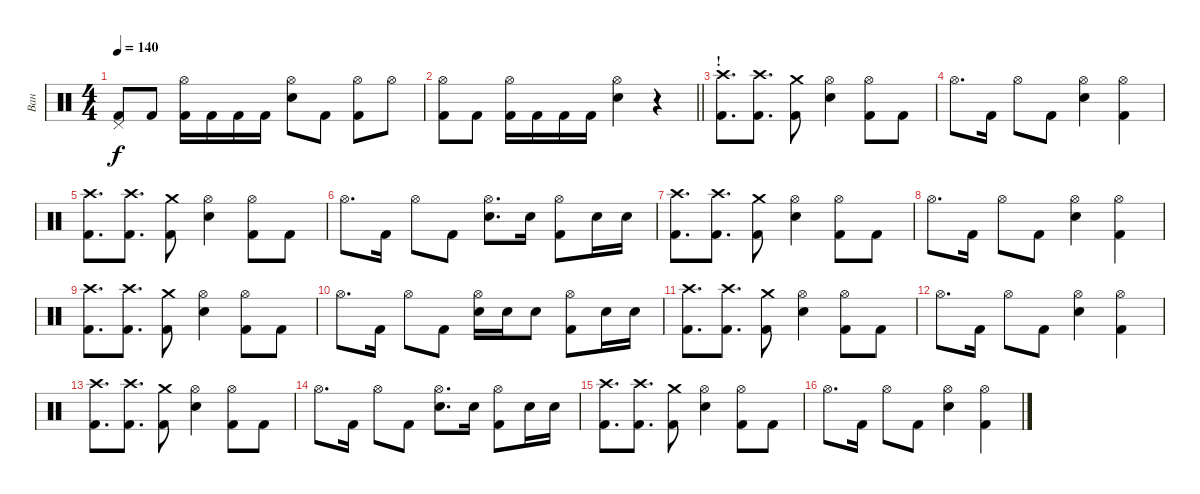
\track ("Ван" "Ван") {instrument percussion}
\staff {score}
\articulation defaults
\ts (4 4)
\tempo 140
\clef neutral
\ks c
("Pedal Hi-Hat (hit)" "Kick (hit) 2").8{dy f} "Kick (hit) 2".8 ("Hi-Hat (open)" "Kick (hit) 2").16 "Kick (hit) 2".16 "Kick (hit) 2".16 "Kick (hit) 2".16 ("Hi-Hat (open)" "Snare (hit) 2").8 "Kick (hit) 2".8 ("Hi-Hat (open)" "Kick (hit) 2").8 "Hi-Hat (open)".8 |
\barLineRight lightlight
("Hi-Hat (open)" "Kick (hit) 2").8 "Kick (hit) 2".8 ("Hi-Hat (open)" "Kick (hit) 2").16 "Kick (hit) 2".16 "Kick (hit) 2".16 "Kick (hit) 2".16 ("Hi-Hat (open)" "Snare (hit) 2").4 r.4 |
\section ("" "!")
("Crash high (hit)" "Kick (hit) 2").8{d} ("Crash high (hit)" "Kick (hit) 2").8{d} ("Crash medium (hit)" "Kick (hit) 2").8 ("Hi-Hat (open)" "Snare (hit) 2").4 ("Hi-Hat (open)" "Kick (hit) 2").8 "Kick (hit) 2".8 |
"Hi-Hat (open)".8{d} "Kick (hit) 2".16 "Hi-Hat (open)".8 "Kick (hit) 2".8 ("Hi-Hat (open)" "Snare (hit) 2").4 ("Hi-Hat (open)" "Kick (hit) 2").4 |
("Crash high (hit)" "Kick (hit) 2").8{d} ("Crash high (hit)" "Kick (hit) 2").8{d} ("Crash medium (hit)" "Kick (hit) 2").8 ("Hi-Hat (open)" "Snare (hit) 2").4 ("Hi-Hat (open)" "Kick (hit) 2").8 "Kick (hit) 2".8 |
"Hi-Hat (open)".8{d} "Kick (hit) 2".16 "Hi-Hat (open)".8 "Kick (hit) 2".8 ("Hi-Hat (open)" "Snare (hit) 2").8{d} "Snare (hit) 2".16 ("Hi-Hat (open)" "Kick (hit) 2").8 "Snare (hit) 2".16 "Snare (hit) 2".16 |
("Crash high (hit)" "Kick (hit) 2").8{d} ("Crash high (hit)" "Kick (hit) 2").8{d} ("Crash medium (hit)" "Kick (hit) 2").8 ("Hi-Hat (open)" "Snare (hit) 2").4 ("Hi-Hat (open)" "Kick (hit) 2").8 "Kick (hit) 2".8 |
"Hi-Hat (open)".8{d} "Kick (hit) 2".16 "Hi-Hat (open)".8 "Kick (hit) 2".8 ("Hi-Hat (open)" "Snare (hit) 2").4 ("Hi-Hat (open)" "Kick (hit) 2").4 |
("Crash high (hit)" "Kick (hit) 2").8{d} ("Crash high (hit)" "Kick (hit) 2").8{d} ("Crash medium (hit)" "Kick (hit) 2").8 ("Hi-Hat (open)" "Snare (hit) 2").4 ("Hi-Hat (open)" "Kick (hit) 2").8 "Kick (hit) 2".8 |
"Hi-Hat (open)".8{d} "Kick (hit) 2".16 "Hi-Hat (open)".8 "Kick (hit) 2".8 ("Hi-Hat (open)" "Snare (hit) 2").16 "Snare (hit) 2".16 "Snare (hit) 2".8 ("Hi-Hat (open)" "Kick (hit) 2").8 "Snare (hit) 2".16 "Snare (hit) 2".16 |
("Crash high (hit)" "Kick (hit) 2").8{d} ("Crash high (hit)" "Kick (hit) 2").8{d} ("Crash medium (hit)" "Kick (hit) 2").8 ("Hi-Hat (open)" "Snare (hit) 2").4 ("Hi-Hat (open)" "Kick (hit) 2").8 "Kick (hit) 2".8 |
"Hi-Hat (open)".8{d} "Kick (hit) 2".16 "Hi-Hat (open)".8 "Kick (hit) 2".8 ("Hi-Hat (open)" "Snare (hit) 2").4 ("Hi-Hat (open)" "Kick (hit) 2").4 |
("Crash high (hit)" "Kick (hit) 2").8{d} ("Crash high (hit)" "Kick (hit) 2").8{d} ("Crash medium (hit)" "Kick (hit) 2").8 ("Hi-Hat (open)" "Snare (hit) 2").4 ("Hi-Hat (open)" "Kick (hit) 2").8 "Kick (hit) 2".8 |
"Hi-Hat (open)".8{d} "Kick (hit) 2".16 "Hi-Hat (open)".8 "Kick (hit) 2".8 ("Hi-Hat (open)" "Snare (hit) 2").8{d} "Snare (hit) 2".16 ("Hi-Hat (open)" "Kick (hit) 2").8 "Snare (hit) 2".16 "Snare (hit) 2".16 |
("Crash high (hit)" "Kick (hit) 2").8{d} ("Crash high (hit)" "Kick (hit) 2").8{d} ("Crash medium (hit)" "Kick (hit) 2").8 ("Hi-Hat (open)" "Snare (hit) 2").4 ("Hi-Hat (open)" "Kick (hit) 2").8 "Kick (hit) 2".8 |
"Hi-Hat (open)".8{d} "Kick (hit) 2".16 "Hi-Hat (open)".8 "Kick (hit) 2".8 ("Hi-Hat (open)" "Snare (hit) 2").4 ("Hi-Hat (open)" "Kick (hit) 2").4
